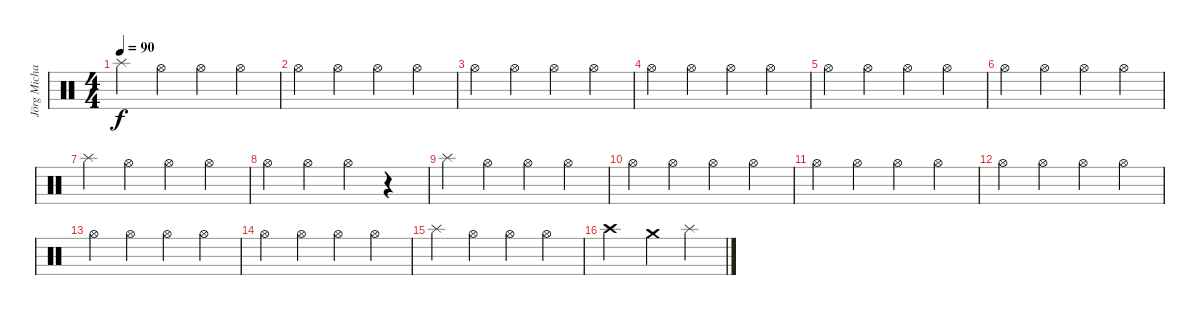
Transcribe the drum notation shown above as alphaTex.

\track ("Jörg Michael Drums" "Jörg Micha") {instrument percussion}
\staff {score}
\articulation defaults
\ts (4 4)
\tempo 90
\clef neutral
\ks c "Splash (hit)".4{dy f} "Hi-Hat (open)".4 "Hi-Hat (open)".4 "Hi-Hat (open)".4
|
"Hi-Hat (open)".4 "Hi-Hat (open)".4 "Hi-Hat (open)".4 "Hi-Hat (open)".4 |
"Hi-Hat (open)".4 "Hi-Hat (open)".4 "Hi-Hat (open)".4 "Hi-Hat (open)".4 |
"Hi-Hat (open)".4 "Hi-Hat (open)".4 "Hi-Hat (open)".4 "Hi-Hat (open)".4 |
"Hi-Hat (open)".4 "Hi-Hat (open)".4 "Hi-Hat (open)".4 "Hi-Hat (open)".4 |
"Hi-Hat (open)".4 "Hi-Hat (open)".4 "Hi-Hat (open)".4 "Hi-Hat (open)".4 |
"Splash (hit)".4 "Hi-Hat (open)".4 "Hi-Hat (open)".4 "Hi-Hat (open)".4 |
"Hi-Hat (open)".4 "Hi-Hat (open)".4 "Hi-Hat (open)".4 r.4 |
"Splash (hit)".4 "Hi-Hat (open)".4 "Hi-Hat (open)".4 "Hi-Hat (open)".4 |
"Hi-Hat (open)".4 "Hi-Hat (open)".4 "Hi-Hat (open)".4 "Hi-Hat (open)".4 |
"Hi-Hat (open)".4 "Hi-Hat (open)".4 "Hi-Hat (open)".4 "Hi-Hat (open)".4 |
"Hi-Hat (open)".4 "Hi-Hat (open)".4 "Hi-Hat (open)".4 "Hi-Hat (open)".4 |
"Hi-Hat (open)".4 "Hi-Hat (open)".4 "Hi-Hat (open)".4 "Hi-Hat (open)".4 |
"Hi-Hat (open)".4 "Hi-Hat (open)".4 "Hi-Hat (open)".4 "Hi-Hat (open)".4 |
"Splash (hit)".4 "Hi-Hat (open)".4 "Hi-Hat (open)".4 "Hi-Hat (open)".4 |
"Crash high (hit)".2 "Crash medium (hit)".4 "Splash (hit)".4
